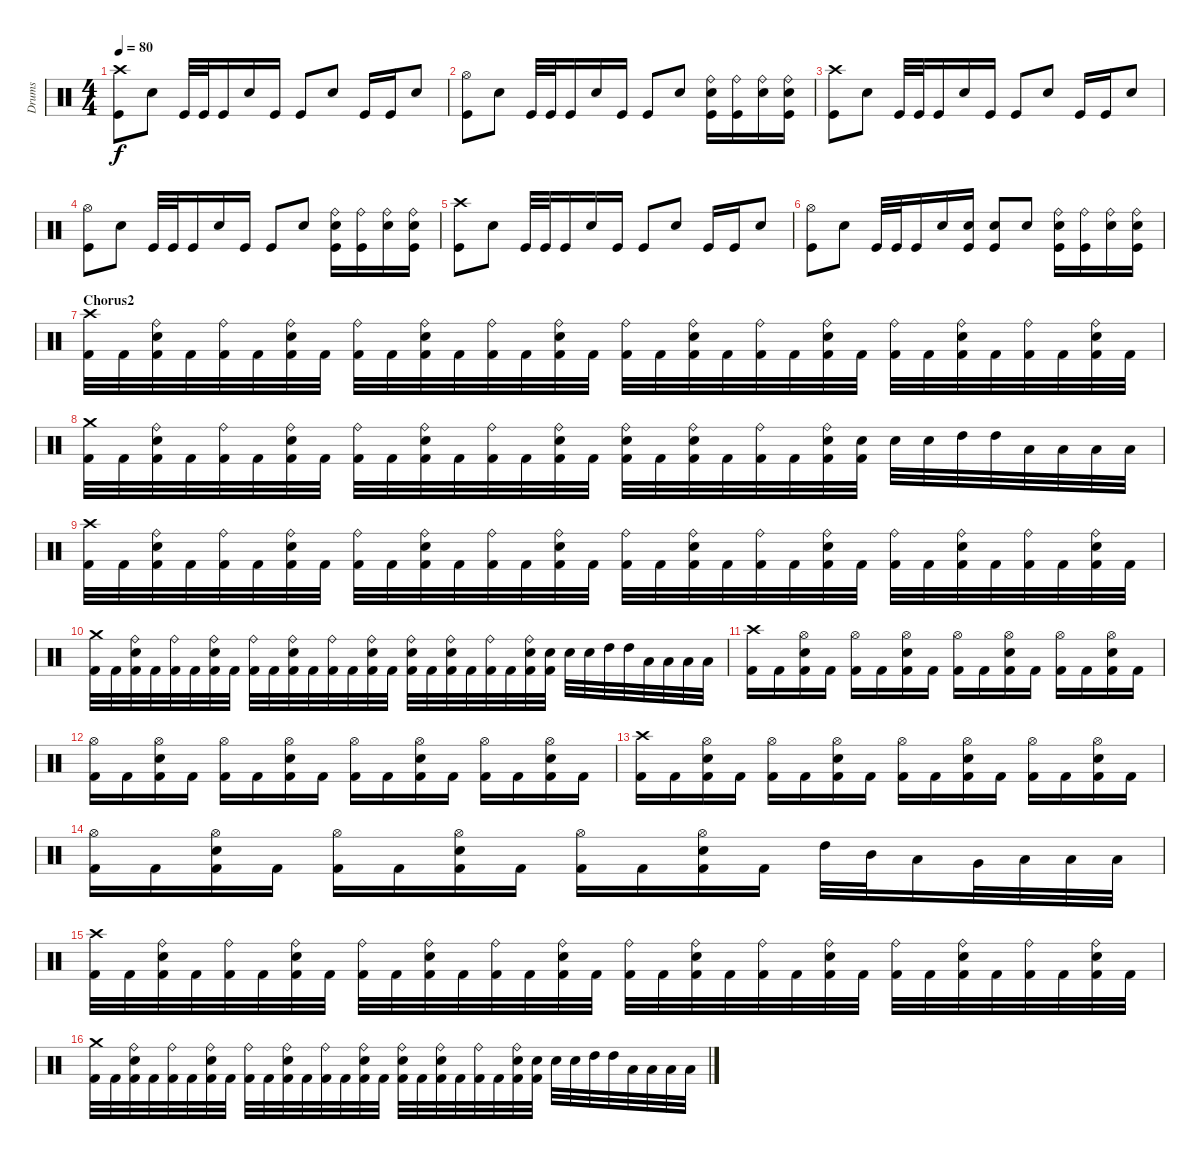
\track ("Drums" "Drums") {instrument percussion}
\staff {score}
\articulation defaults
\ts (4 4)
\tempo 80
\clef neutral
\ks c
("Crash high (hit)" "Kick (hit)").8{dy f} "Electric Snare (hit)".8 "Kick (hit)".32 "Kick (hit)".32 "Kick (hit)".16 "Electric Snare (hit)".16 "Kick (hit)".16 "Kick (hit)".8 "Electric Snare (hit)".8 "Kick (hit)".16 "Kick (hit)".16 "Electric Snare (hit)".8 |
("Hi-Hat (open)" "Kick (hit)").8 "Electric Snare (hit)".8 "Kick (hit)".32 "Kick (hit)".32 "Kick (hit)".16 "Electric Snare (hit)".16 "Kick (hit)".16 "Kick (hit)".8 "Electric Snare (hit)".8 ("Ride (bell)" "Electric Snare (hit)" "Kick (hit)").16 ("Ride (bell)" "Kick (hit)").16 ("Ride (bell)" "Electric Snare (hit)").16 ("Ride (bell)" "Electric Snare (hit)" "Kick (hit)").16 |
("Crash high (hit)" "Kick (hit)").8 "Electric Snare (hit)".8 "Kick (hit)".32 "Kick (hit)".32 "Kick (hit)".16 "Electric Snare (hit)".16 "Kick (hit)".16 "Kick (hit)".8 "Electric Snare (hit)".8 "Kick (hit)".16 "Kick (hit)".16 "Electric Snare (hit)".8 |
("Hi-Hat (open)" "Kick (hit)").8 "Electric Snare (hit)".8 "Kick (hit)".32 "Kick (hit)".32 "Kick (hit)".16 "Electric Snare (hit)".16 "Kick (hit)".16 "Kick (hit)".8 "Electric Snare (hit)".8 ("Ride (bell)" "Electric Snare (hit)" "Kick (hit)").16 ("Ride (bell)" "Kick (hit)").16 ("Ride (bell)" "Electric Snare (hit)").16 ("Ride (bell)" "Electric Snare (hit)" "Kick (hit)").16 |
("Crash high (hit)" "Kick (hit)").8 "Electric Snare (hit)".8 "Kick (hit)".32 "Kick (hit)".32 "Kick (hit)".16 "Electric Snare (hit)".16 "Kick (hit)".16 "Kick (hit)".8 "Electric Snare (hit)".8 "Kick (hit)".16 "Kick (hit)".16 "Electric Snare (hit)".8 |
("Hi-Hat (open)" "Kick (hit)").8 "Electric Snare (hit)".8 "Kick (hit)".32 "Kick (hit)".32 "Kick (hit)".16 "Electric Snare (hit)".16 ("Electric Snare (hit)" "Kick (hit)").16 ("Electric Snare (hit)" "Kick (hit)").8 "Electric Snare (hit)".8 ("Ride (bell)" "Electric Snare (hit)" "Kick (hit)").16 ("Ride (bell)" "Kick (hit)").16 ("Ride (bell)" "Electric Snare (hit)").16 ("Ride (bell)" "Electric Snare (hit)" "Kick (hit)").16 |
\section ("" "Chorus2")
("Crash high (hit)" "Kick (hit) 2").32 "Kick (hit) 2".32 ("Ride (bell)" "Electric Snare (hit)" "Kick (hit) 2").32 "Kick (hit) 2".32 ("Ride (bell)" "Kick (hit) 2").32 "Kick (hit) 2".32 ("Ride (bell)" "Electric Snare (hit)" "Kick (hit) 2").32 "Kick (hit) 2".32 ("Ride (bell)" "Kick (hit) 2").32 "Kick (hit) 2".32 ("Ride (bell)" "Electric Snare (hit)" "Kick (hit) 2").32 "Kick (hit) 2".32 ("Ride (bell)" "Kick (hit) 2").32 "Kick (hit) 2".32 ("Ride (bell)" "Electric Snare (hit)" "Kick (hit) 2").32 "Kick (hit) 2".32 ("Ride (bell)" "Kick (hit) 2").32 "Kick (hit) 2".32 ("Ride (bell)" "Electric Snare (hit)" "Kick (hit) 2").32 "Kick (hit) 2".32 ("Ride (bell)" "Kick (hit) 2").32 "Kick (hit) 2".32 ("Ride (bell)" "Electric Snare (hit)" "Kick (hit) 2").32 "Kick (hit) 2".32 ("Ride (bell)" "Kick (hit) 2").32 "Kick (hit) 2".32 ("Ride (bell)" "Electric Snare (hit)" "Kick (hit) 2").32 "Kick (hit) 2".32 ("Ride (bell)" "Kick (hit) 2").32 "Kick (hit) 2".32 ("Ride (bell)" "Electric Snare (hit)" "Kick (hit) 2").32 "Kick (hit) 2".32 |
("Crash medium (hit)" "Kick (hit) 2").32 "Kick (hit) 2".32 ("Ride (bell)" "Electric Snare (hit)" "Kick (hit) 2").32 "Kick (hit) 2".32 ("Ride (bell)" "Kick (hit) 2").32 "Kick (hit) 2".32 ("Ride (bell)" "Electric Snare (hit)" "Kick (hit) 2").32 "Kick (hit) 2".32 ("Ride (bell)" "Kick (hit) 2").32 "Kick (hit) 2".32 ("Ride (bell)" "Electric Snare (hit)" "Kick (hit) 2").32 "Kick (hit) 2".32 ("Ride (bell)" "Kick (hit) 2").32 "Kick (hit) 2".32 ("Ride (bell)" "Electric Snare (hit)" "Kick (hit) 2").32 "Kick (hit) 2".32 ("Ride (bell)" "Electric Snare (hit)" "Kick (hit) 2").32 "Kick (hit) 2".32 ("Ride (bell)" "Electric Snare (hit)" "Kick (hit) 2").32 "Kick (hit) 2".32 ("Ride (bell)" "Kick (hit) 2").32 "Kick (hit) 2".32 ("Ride (bell)" "Electric Snare (hit)" "Kick (hit) 2").32 ("Electric Snare (hit)" "Kick (hit) 2").32 "Electric Snare (hit)".32 "Electric Snare (hit)".32 "High Tom (hit)".32 "High Tom (hit)".32 "Low Floor Tom (hit)".32 "Low Floor Tom (hit)".32 "Low Floor Tom (hit)".32 "Low Floor Tom (hit)".32 |
("Crash high (hit)" "Kick (hit) 2").32 "Kick (hit) 2".32 ("Ride (bell)" "Electric Snare (hit)" "Kick (hit) 2").32 "Kick (hit) 2".32 ("Ride (bell)" "Kick (hit) 2").32 "Kick (hit) 2".32 ("Ride (bell)" "Electric Snare (hit)" "Kick (hit) 2").32 "Kick (hit) 2".32 ("Ride (bell)" "Kick (hit) 2").32 "Kick (hit) 2".32 ("Ride (bell)" "Electric Snare (hit)" "Kick (hit) 2").32 "Kick (hit) 2".32 ("Ride (bell)" "Kick (hit) 2").32 "Kick (hit) 2".32 ("Ride (bell)" "Electric Snare (hit)" "Kick (hit) 2").32 "Kick (hit) 2".32 ("Ride (bell)" "Kick (hit) 2").32 "Kick (hit) 2".32 ("Ride (bell)" "Electric Snare (hit)" "Kick (hit) 2").32 "Kick (hit) 2".32 ("Ride (bell)" "Kick (hit) 2").32 "Kick (hit) 2".32 ("Ride (bell)" "Electric Snare (hit)" "Kick (hit) 2").32 "Kick (hit) 2".32 ("Ride (bell)" "Kick (hit) 2").32 "Kick (hit) 2".32 ("Ride (bell)" "Electric Snare (hit)" "Kick (hit) 2").32 "Kick (hit) 2".32 ("Ride (bell)" "Kick (hit) 2").32 "Kick (hit) 2".32 ("Ride (bell)" "Electric Snare (hit)" "Kick (hit) 2").32 "Kick (hit) 2".32 |
("Crash medium (hit)" "Kick (hit) 2").32 "Kick (hit) 2".32 ("Ride (bell)" "Electric Snare (hit)" "Kick (hit) 2").32 "Kick (hit) 2".32 ("Ride (bell)" "Kick (hit) 2").32 "Kick (hit) 2".32 ("Ride (bell)" "Electric Snare (hit)" "Kick (hit) 2").32 "Kick (hit) 2".32 ("Ride (bell)" "Kick (hit) 2").32 "Kick (hit) 2".32 ("Ride (bell)" "Electric Snare (hit)" "Kick (hit) 2").32 "Kick (hit) 2".32 ("Ride (bell)" "Kick (hit) 2").32 "Kick (hit) 2".32 ("Ride (bell)" "Electric Snare (hit)" "Kick (hit) 2").32 "Kick (hit) 2".32 ("Ride (bell)" "Electric Snare (hit)" "Kick (hit) 2").32 "Kick (hit) 2".32 ("Ride (bell)" "Electric Snare (hit)" "Kick (hit) 2").32 "Kick (hit) 2".32 ("Ride (bell)" "Kick (hit) 2").32 "Kick (hit) 2".32 ("Ride (bell)" "Electric Snare (hit)" "Kick (hit) 2").32 ("Electric Snare (hit)" "Kick (hit) 2").32 "Electric Snare (hit)".32 "Electric Snare (hit)".32 "High Tom (hit)".32 "High Tom (hit)".32 "Low Floor Tom (hit)".32 "Low Floor Tom (hit)".32 "Low Floor Tom (hit)".32 "Low Floor Tom (hit)".32 |
("Crash high (hit)" "Kick (hit) 2").16 "Kick (hit) 2".16 ("Hi-Hat (open)" "Electric Snare (hit)" "Kick (hit) 2").16 "Kick (hit) 2".16 ("Hi-Hat (open)" "Kick (hit) 2").16 "Kick (hit) 2".16 ("Hi-Hat (open)" "Electric Snare (hit)" "Kick (hit) 2").16 "Kick (hit) 2".16 ("Hi-Hat (open)" "Kick (hit) 2").16 "Kick (hit) 2".16 ("Hi-Hat (open)" "Electric Snare (hit)" "Kick (hit) 2").16 "Kick (hit) 2".16 ("Hi-Hat (open)" "Kick (hit) 2").16 "Kick (hit) 2".16 ("Hi-Hat (open)" "Electric Snare (hit)" "Kick (hit) 2").16 "Kick (hit) 2".16 |
("Hi-Hat (open)" "Kick (hit) 2").16 "Kick (hit) 2".16 ("Hi-Hat (open)" "Electric Snare (hit)" "Kick (hit) 2").16 "Kick (hit) 2".16 ("Hi-Hat (open)" "Kick (hit) 2").16 "Kick (hit) 2".16 ("Hi-Hat (open)" "Electric Snare (hit)" "Kick (hit) 2").16 "Kick (hit) 2".16 ("Hi-Hat (open)" "Kick (hit) 2").16 "Kick (hit) 2".16 ("Hi-Hat (open)" "Electric Snare (hit)" "Kick (hit) 2").16 "Kick (hit) 2".16 ("Hi-Hat (open)" "Kick (hit) 2").16 "Kick (hit) 2".16 ("Hi-Hat (open)" "Electric Snare (hit)" "Kick (hit) 2").16 "Kick (hit) 2".16 |
("Crash high (hit)" "Kick (hit) 2").16 "Kick (hit) 2".16 ("Hi-Hat (open)" "Electric Snare (hit)" "Kick (hit) 2").16 "Kick (hit) 2".16 ("Hi-Hat (open)" "Kick (hit) 2").16 "Kick (hit) 2".16 ("Hi-Hat (open)" "Electric Snare (hit)" "Kick (hit) 2").16 "Kick (hit) 2".16 ("Hi-Hat (open)" "Kick (hit) 2").16 "Kick (hit) 2".16 ("Hi-Hat (open)" "Electric Snare (hit)" "Kick (hit) 2").16 "Kick (hit) 2".16 ("Hi-Hat (open)" "Kick (hit) 2").16 "Kick (hit) 2".16 ("Hi-Hat (open)" "Electric Snare (hit)" "Kick (hit) 2").16 "Kick (hit) 2".16 |
("Hi-Hat (open)" "Kick (hit) 2").16 "Kick (hit) 2".16 ("Hi-Hat (open)" "Electric Snare (hit)" "Kick (hit) 2").16 "Kick (hit) 2".16 ("Hi-Hat (open)" "Kick (hit) 2").16 "Kick (hit) 2".16 ("Hi-Hat (open)" "Electric Snare (hit)" "Kick (hit) 2").16 "Kick (hit) 2".16 ("Hi-Hat (open)" "Kick (hit) 2").16 "Kick (hit) 2".16 ("Hi-Hat (open)" "Electric Snare (hit)" "Kick (hit) 2").16 "Kick (hit) 2".16 "High Tom (hit)".32 "Mid Tom (hit)".32 "Low Tom (hit)".16 "Very Low Tom (hit)".32 "Low Floor Tom (hit)".32 "Low Floor Tom (hit)".32 "Low Floor Tom (hit)".32 |
("Crash high (hit)" "Kick (hit) 2").32 "Kick (hit) 2".32 ("Ride (bell)" "Electric Snare (hit)" "Kick (hit) 2").32 "Kick (hit) 2".32 ("Ride (bell)" "Kick (hit) 2").32 "Kick (hit) 2".32 ("Ride (bell)" "Electric Snare (hit)" "Kick (hit) 2").32 "Kick (hit) 2".32 ("Ride (bell)" "Kick (hit) 2").32 "Kick (hit) 2".32 ("Ride (bell)" "Electric Snare (hit)" "Kick (hit) 2").32 "Kick (hit) 2".32 ("Ride (bell)" "Kick (hit) 2").32 "Kick (hit) 2".32 ("Ride (bell)" "Electric Snare (hit)" "Kick (hit) 2").32 "Kick (hit) 2".32 ("Ride (bell)" "Kick (hit) 2").32 "Kick (hit) 2".32 ("Ride (bell)" "Electric Snare (hit)" "Kick (hit) 2").32 "Kick (hit) 2".32 ("Ride (bell)" "Kick (hit) 2").32 "Kick (hit) 2".32 ("Ride (bell)" "Electric Snare (hit)" "Kick (hit) 2").32 "Kick (hit) 2".32 ("Ride (bell)" "Kick (hit) 2").32 "Kick (hit) 2".32 ("Ride (bell)" "Electric Snare (hit)" "Kick (hit) 2").32 "Kick (hit) 2".32 ("Ride (bell)" "Kick (hit) 2").32 "Kick (hit) 2".32 ("Ride (bell)" "Electric Snare (hit)" "Kick (hit) 2").32 "Kick (hit) 2".32 |
("Crash medium (hit)" "Kick (hit) 2").32 "Kick (hit) 2".32 ("Ride (bell)" "Electric Snare (hit)" "Kick (hit) 2").32 "Kick (hit) 2".32 ("Ride (bell)" "Kick (hit) 2").32 "Kick (hit) 2".32 ("Ride (bell)" "Electric Snare (hit)" "Kick (hit) 2").32 "Kick (hit) 2".32 ("Ride (bell)" "Kick (hit) 2").32 "Kick (hit) 2".32 ("Ride (bell)" "Electric Snare (hit)" "Kick (hit) 2").32 "Kick (hit) 2".32 ("Ride (bell)" "Kick (hit) 2").32 "Kick (hit) 2".32 ("Ride (bell)" "Electric Snare (hit)" "Kick (hit) 2").32 "Kick (hit) 2".32 ("Ride (bell)" "Electric Snare (hit)" "Kick (hit) 2").32 "Kick (hit) 2".32 ("Ride (bell)" "Electric Snare (hit)" "Kick (hit) 2").32 "Kick (hit) 2".32 ("Ride (bell)" "Kick (hit) 2").32 "Kick (hit) 2".32 ("Ride (bell)" "Electric Snare (hit)" "Kick (hit) 2").32 ("Electric Snare (hit)" "Kick (hit) 2").32 "Electric Snare (hit)".32 "Electric Snare (hit)".32 "High Tom (hit)".32 "High Tom (hit)".32 "Low Floor Tom (hit)".32 "Low Floor Tom (hit)".32 "Low Floor Tom (hit)".32 "Low Floor Tom (hit)".32
